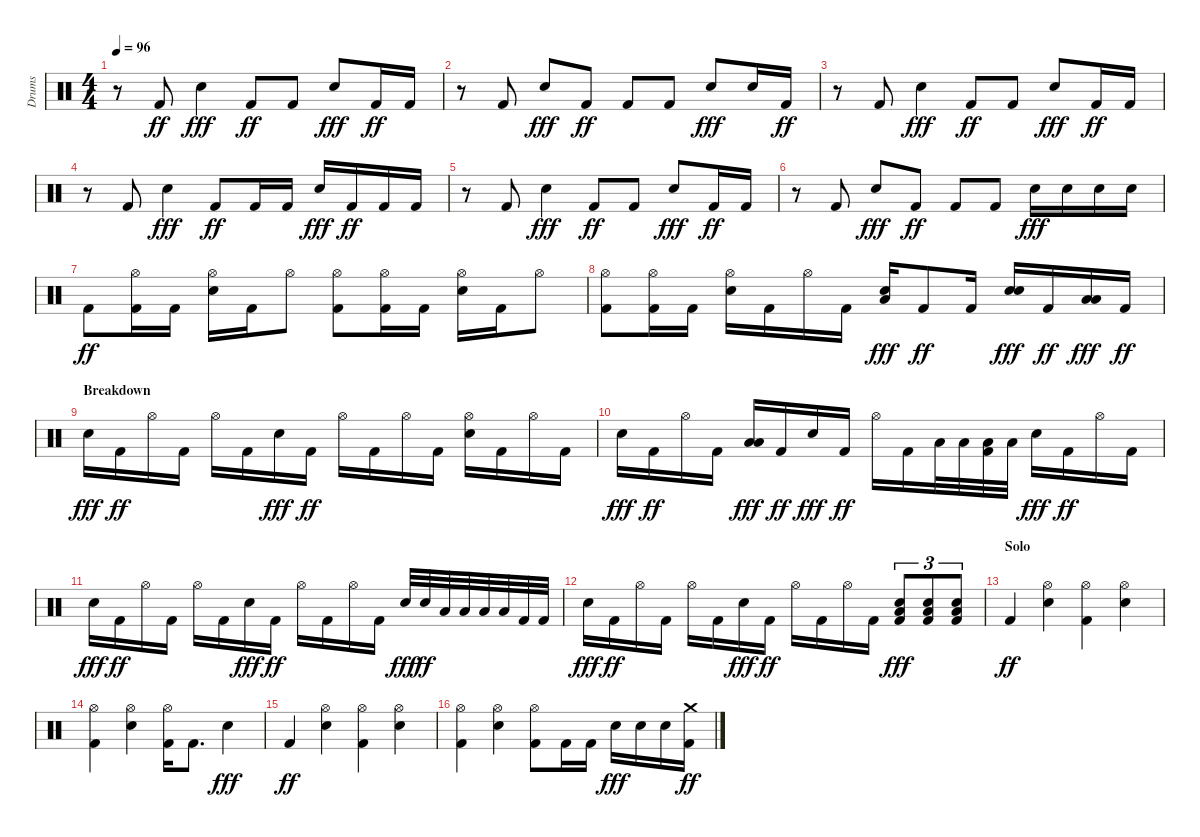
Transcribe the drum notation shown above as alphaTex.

\track ("Drums" "Drums") {instrument percussion}
\staff {score}
\articulation defaults
\ts (4 4)
\tempo 96
\clef neutral
\ks c
r.8{dy ff} "Kick (hit) 2".8 "Snare (hit) 2".4{dy fff} "Kick (hit) 2".8{dy ff} "Kick (hit) 2".8 "Snare (hit) 2".8{dy fff} "Kick (hit) 2".16{dy ff} "Kick (hit) 2".16 |
r.8 "Kick (hit) 2".8 "Snare (hit) 2".8{dy fff} "Kick (hit) 2".8{dy ff} "Kick (hit) 2".8 "Kick (hit) 2".8 "Snare (hit) 2".8{dy fff} "Snare (hit) 2".16 "Kick (hit) 2".16{dy ff} |
r.8 "Kick (hit) 2".8 "Snare (hit) 2".4{dy fff} "Kick (hit) 2".8{dy ff} "Kick (hit) 2".8 "Snare (hit) 2".8{dy fff} "Kick (hit) 2".16{dy ff} "Kick (hit) 2".16 |
r.8 "Kick (hit) 2".8 "Snare (hit) 2".4{dy fff} "Kick (hit) 2".8{dy ff} "Kick (hit) 2".16 "Kick (hit) 2".16 "Snare (hit) 2".16{dy fff} "Kick (hit) 2".16{dy ff} "Kick (hit) 2".16 "Kick (hit) 2".16 |
r.8 "Kick (hit) 2".8 "Snare (hit) 2".4{dy fff} "Kick (hit) 2".8{dy ff} "Kick (hit) 2".8 "Snare (hit) 2".8{dy fff} "Kick (hit) 2".16{dy ff} "Kick (hit) 2".16 |
r.8 "Kick (hit) 2".8 "Snare (hit) 2".8{dy fff} "Kick (hit) 2".8{dy ff} "Kick (hit) 2".8 "Kick (hit) 2".8 "Snare (hit) 2".16{dy fff} "Snare (hit) 2".16 "Snare (hit) 2".16 "Snare (hit) 2".16 |
"Kick (hit) 2".8{dy ff} ("Hi-Hat (open)" "Kick (hit) 2").16 "Kick (hit) 2".16 ("Snare (hit) 2" "Hi-Hat (open)").16 "Kick (hit) 2".16 "Hi-Hat (open)".8 ("Hi-Hat (open)" "Kick (hit) 2").8 ("Hi-Hat (open)" "Kick (hit) 2").16 "Kick (hit) 2".16 ("Snare (hit) 2" "Hi-Hat (open)").16 "Kick (hit) 2".16 "Hi-Hat (open)".8 |
("Hi-Hat (open)" "Kick (hit) 2").8 ("Hi-Hat (open)" "Kick (hit) 2").16 "Kick (hit) 2".16 ("Snare (hit) 2" "Hi-Hat (open)").16 "Kick (hit) 2".16 "Hi-Hat (open)".16 "Kick (hit) 2".16 ("Low Floor Tom (hit)" "Snare (hit) 2").16{dy fff} "Kick (hit) 2".8{dy ff} "Kick (hit) 2".16 ("Snare (hit) 2" "Snare (hit) 2").16{dy fff} "Kick (hit) 2".16{dy ff} ("Low Floor Tom (hit)" "Low Tom (hit)").16{dy fff} "Kick (hit) 2".16{dy ff} |
\section ("" "Breakdown")
"Snare (hit) 2".16{dy fff} "Kick (hit) 2".16{dy ff} "Hi-Hat (open)".16 "Kick (hit) 2".16 "Hi-Hat (open)".16 "Kick (hit) 2".16 "Snare (hit) 2".16{dy fff} "Kick (hit) 2".16{dy ff} "Hi-Hat (open)".16 "Kick (hit) 2".16 "Hi-Hat (open)".16 "Kick (hit) 2".16 ("Snare (hit) 2" "Hi-Hat (open)").16 "Kick (hit) 2".16 "Hi-Hat (open)".16 "Kick (hit) 2".16 |
"Snare (hit) 2".16{dy fff} "Kick (hit) 2".16{dy ff} "Hi-Hat (open)".16 "Kick (hit) 2".16 ("Low Floor Tom (hit)" "Low Tom (hit)").16{dy fff} "Kick (hit) 2".16{dy ff} "Snare (hit) 2".16{dy fff} "Kick (hit) 2".16{dy ff} "Hi-Hat (open)".16 "Kick (hit) 2".16 "Low Floor Tom (hit)".32 "Low Floor Tom (hit)".32 ("Low Floor Tom (hit)" "Kick (hit) 2").32 "Low Floor Tom (hit)".32 "Snare (hit) 2".16{dy fff} "Kick (hit) 2".16{dy ff} "Hi-Hat (open)".16 "Kick (hit) 2".16 |
"Snare (hit) 2".16{dy fff} "Kick (hit) 2".16{dy ff} "Hi-Hat (open)".16 "Kick (hit) 2".16 "Hi-Hat (open)".16 "Kick (hit) 2".16 "Snare (hit) 2".16{dy fff} "Kick (hit) 2".16{dy ff} "Hi-Hat (open)".16 "Kick (hit) 2".16 "Hi-Hat (open)".16 "Kick (hit) 2".16 "Snare (hit) 2".32{dy fff} "Snare (hit) 2".32{dy ff} "Low Tom (hit)".32 "Low Tom (hit)".32 "Low Floor Tom (hit)".32 "Low Floor Tom (hit)".32 "Kick (hit) 2".32 "Kick (hit) 2".32 |
"Snare (hit) 2".16{dy fff} "Kick (hit) 2".16{dy ff} "Hi-Hat (open)".16 "Kick (hit) 2".16 "Hi-Hat (open)".16 "Kick (hit) 2".16 "Snare (hit) 2".16{dy fff} "Kick (hit) 2".16{dy ff} "Hi-Hat (open)".16 "Kick (hit) 2".16 "Hi-Hat (open)".16 "Kick (hit) 2".16 ("Low Floor Tom (hit)" "Snare (hit) 2" "Kick (hit) 2").8{tu (3 2) dy fff} ("Low Floor Tom (hit)" "Snare (hit) 2" "Kick (hit) 2").8{tu (3 2)} ("Low Floor Tom (hit)" "Snare (hit) 2" "Kick (hit) 2").8{tu (3 2)} |
\section ("" "Solo")
"Kick (hit) 2".4{dy ff} ("Snare (hit) 2" "Hi-Hat (open)").4 ("Hi-Hat (open)" "Kick (hit) 2").4 ("Snare (hit) 2" "Hi-Hat (open)").4 |
("Hi-Hat (open)" "Kick (hit) 2").4 ("Snare (hit) 2" "Hi-Hat (open)").4 ("Hi-Hat (open)" "Kick (hit) 2").16 "Kick (hit) 2".8{d} "Snare (hit) 2".4{dy fff} |
"Kick (hit) 2".4{dy ff} ("Snare (hit) 2" "Hi-Hat (open)").4 ("Hi-Hat (open)" "Kick (hit) 2").4 ("Snare (hit) 2" "Hi-Hat (open)").4 |
("Hi-Hat (open)" "Kick (hit) 2").4 ("Snare (hit) 2" "Hi-Hat (open)").4 ("Hi-Hat (open)" "Kick (hit) 2").8 "Kick (hit) 2".16 "Kick (hit) 2".16 "Snare (hit) 2".16{dy fff} "Snare (hit) 2".16 "Snare (hit) 2".16 ("Crash medium (hit)" "Kick (hit) 2").16{dy ff}
